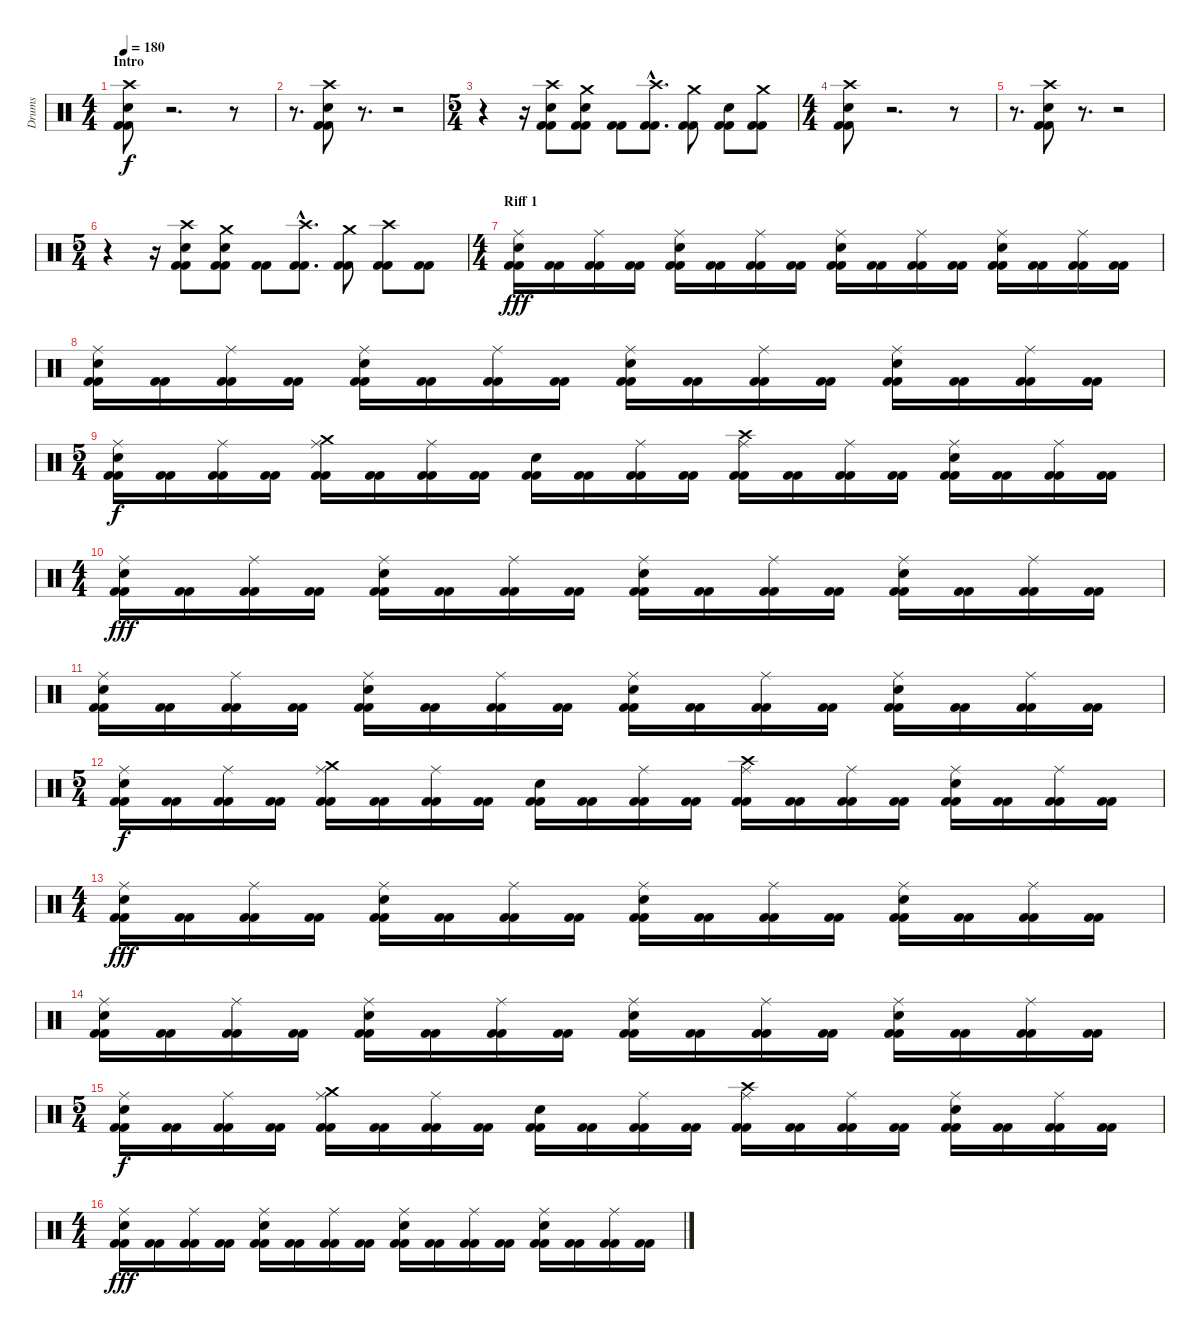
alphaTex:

\track ("Drums" "Drums") {instrument percussion}
\staff {score}
\articulation defaults
\ts (4 4)
\section ("" "Intro")
\tempo 180
\clef neutral
\ks c
("Crash high (hit)" "Snare (hit) 2" "Kick (hit) 2" "Kick (hit) 2").8{dy f} r.2{d} r.8 |
r.8{d} ("Crash high (hit)" "Snare (hit) 2" "Kick (hit) 2" "Kick (hit) 2").8 r.8{d} r.2 |
\ts (5 4)
r.4 r.16 ("Crash high (hit)" "Snare (hit) 2" "Kick (hit) 2" "Kick (hit) 2").8 ("Crash medium (hit)" "Snare (hit) 2" "Kick (hit) 2" "Kick (hit) 2").8 ("Kick (hit) 2" "Kick (hit) 2").8 ("Crash high (hit)"{hac} "Kick (hit) 2"{hac} "Kick (hit) 2"{hac}).8{d} ("Crash medium (hit)" "Kick (hit) 2" "Kick (hit) 2").8 ("Snare (hit) 2" "Kick (hit) 2" "Kick (hit) 2").8 ("Crash medium (hit)" "Kick (hit) 2" "Kick (hit) 2").8 |
\ts (4 4)
("Crash high (hit)" "Snare (hit) 2" "Kick (hit) 2" "Kick (hit) 2").8 r.2{d} r.8 |
r.8{d} ("Crash high (hit)" "Snare (hit) 2" "Kick (hit) 2" "Kick (hit) 2").8 r.8{d} r.2 |
\ts (5 4)
r.4 r.16 ("Crash high (hit)" "Snare (hit) 2" "Kick (hit) 2" "Kick (hit) 2").8 ("Crash medium (hit)" "Snare (hit) 2" "Kick (hit) 2" "Kick (hit) 2").8 ("Kick (hit) 2" "Kick (hit) 2").8 ("Crash high (hit)"{hac} "Kick (hit) 2"{hac} "Kick (hit) 2"{hac}).8{d} ("Crash medium (hit)" "Kick (hit) 2" "Kick (hit) 2").8 ("Crash high (hit)" "Kick (hit) 2" "Kick (hit) 2").8 ("Kick (hit) 2" "Kick (hit) 2").8 |
\ts (4 4)
\section ("" "Riff 1")
("Kick (hit) 2" "Kick (hit) 2" "Electric Snare (hit)" "Ride (middle)").16{dy fff} ("Kick (hit) 2" "Kick (hit) 2").16 ("Kick (hit) 2" "Kick (hit) 2" "Ride (middle)").16 ("Kick (hit) 2" "Kick (hit) 2").16 ("Kick (hit) 2" "Kick (hit) 2" "Electric Snare (hit)" "Ride (middle)").16 ("Kick (hit) 2" "Kick (hit) 2").16 ("Kick (hit) 2" "Kick (hit) 2" "Ride (middle)").16 ("Kick (hit) 2" "Kick (hit) 2").16 ("Kick (hit) 2" "Kick (hit) 2" "Electric Snare (hit)" "Ride (middle)").16 ("Kick (hit) 2" "Kick (hit) 2").16 ("Kick (hit) 2" "Kick (hit) 2" "Ride (middle)").16 ("Kick (hit) 2" "Kick (hit) 2").16 ("Kick (hit) 2" "Kick (hit) 2" "Electric Snare (hit)" "Ride (middle)").16 ("Kick (hit) 2" "Kick (hit) 2").16 ("Kick (hit) 2" "Kick (hit) 2" "Ride (middle)").16 ("Kick (hit) 2" "Kick (hit) 2").16 |
("Kick (hit) 2" "Kick (hit) 2" "Electric Snare (hit)" "Ride (middle)").16 ("Kick (hit) 2" "Kick (hit) 2").16 ("Kick (hit) 2" "Kick (hit) 2" "Ride (middle)").16 ("Kick (hit) 2" "Kick (hit) 2").16 ("Kick (hit) 2" "Kick (hit) 2" "Electric Snare (hit)" "Ride (middle)").16 ("Kick (hit) 2" "Kick (hit) 2").16 ("Kick (hit) 2" "Kick (hit) 2" "Ride (middle)").16 ("Kick (hit) 2" "Kick (hit) 2").16 ("Kick (hit) 2" "Kick (hit) 2" "Electric Snare (hit)" "Ride (middle)").16 ("Kick (hit) 2" "Kick (hit) 2").16 ("Kick (hit) 2" "Kick (hit) 2" "Ride (middle)").16 ("Kick (hit) 2" "Kick (hit) 2").16 ("Kick (hit) 2" "Kick (hit) 2" "Electric Snare (hit)" "Ride (middle)").16 ("Kick (hit) 2" "Kick (hit) 2").16 ("Kick (hit) 2" "Kick (hit) 2" "Ride (middle)").16 ("Kick (hit) 2" "Kick (hit) 2").16 |
\ts (5 4)
("Kick (hit) 2" "Kick (hit) 2" "Electric Snare (hit)" "Ride (middle)").16{dy f} ("Kick (hit) 2" "Kick (hit) 2").16 ("Kick (hit) 2" "Kick (hit) 2" "Ride (middle)").16 ("Kick (hit) 2" "Kick (hit) 2").16 ("Kick (hit) 2" "Kick (hit) 2" "Crash medium (hit)" "Ride (middle)").16 ("Kick (hit) 2" "Kick (hit) 2").16 ("Kick (hit) 2" "Kick (hit) 2" "Ride (middle)").16 ("Kick (hit) 2" "Kick (hit) 2").16 ("Kick (hit) 2" "Kick (hit) 2" "Snare (hit) 2").16 ("Kick (hit) 2" "Kick (hit) 2").16 ("Kick (hit) 2" "Kick (hit) 2" "Ride (middle)").16 ("Kick (hit) 2" "Kick (hit) 2").16 ("Kick (hit) 2" "Kick (hit) 2" "Crash high (hit)" "Ride (middle)").16 ("Kick (hit) 2" "Kick (hit) 2").16 ("Kick (hit) 2" "Kick (hit) 2" "Ride (middle)").16 ("Kick (hit) 2" "Kick (hit) 2").16 ("Kick (hit) 2" "Kick (hit) 2" "Electric Snare (hit)" "Ride (middle)").16 ("Kick (hit) 2" "Kick (hit) 2").16 ("Kick (hit) 2" "Kick (hit) 2" "Ride (middle)").16 ("Kick (hit) 2" "Kick (hit) 2").16 |
\ts (4 4)
("Kick (hit) 2" "Kick (hit) 2" "Electric Snare (hit)" "Ride (middle)").16{dy fff} ("Kick (hit) 2" "Kick (hit) 2").16 ("Kick (hit) 2" "Kick (hit) 2" "Ride (middle)").16 ("Kick (hit) 2" "Kick (hit) 2").16 ("Kick (hit) 2" "Kick (hit) 2" "Electric Snare (hit)" "Ride (middle)").16 ("Kick (hit) 2" "Kick (hit) 2").16 ("Kick (hit) 2" "Kick (hit) 2" "Ride (middle)").16 ("Kick (hit) 2" "Kick (hit) 2").16 ("Kick (hit) 2" "Kick (hit) 2" "Electric Snare (hit)" "Ride (middle)").16 ("Kick (hit) 2" "Kick (hit) 2").16 ("Kick (hit) 2" "Kick (hit) 2" "Ride (middle)").16 ("Kick (hit) 2" "Kick (hit) 2").16 ("Kick (hit) 2" "Kick (hit) 2" "Electric Snare (hit)" "Ride (middle)").16 ("Kick (hit) 2" "Kick (hit) 2").16 ("Kick (hit) 2" "Kick (hit) 2" "Ride (middle)").16 ("Kick (hit) 2" "Kick (hit) 2").16 |
("Kick (hit) 2" "Kick (hit) 2" "Electric Snare (hit)" "Ride (middle)").16 ("Kick (hit) 2" "Kick (hit) 2").16 ("Kick (hit) 2" "Kick (hit) 2" "Ride (middle)").16 ("Kick (hit) 2" "Kick (hit) 2").16 ("Kick (hit) 2" "Kick (hit) 2" "Electric Snare (hit)" "Ride (middle)").16 ("Kick (hit) 2" "Kick (hit) 2").16 ("Kick (hit) 2" "Kick (hit) 2" "Ride (middle)").16 ("Kick (hit) 2" "Kick (hit) 2").16 ("Kick (hit) 2" "Kick (hit) 2" "Electric Snare (hit)" "Ride (middle)").16 ("Kick (hit) 2" "Kick (hit) 2").16 ("Kick (hit) 2" "Kick (hit) 2" "Ride (middle)").16 ("Kick (hit) 2" "Kick (hit) 2").16 ("Kick (hit) 2" "Kick (hit) 2" "Electric Snare (hit)" "Ride (middle)").16 ("Kick (hit) 2" "Kick (hit) 2").16 ("Kick (hit) 2" "Kick (hit) 2" "Ride (middle)").16 ("Kick (hit) 2" "Kick (hit) 2").16 |
\ts (5 4)
("Kick (hit) 2" "Kick (hit) 2" "Electric Snare (hit)" "Ride (middle)").16{dy f} ("Kick (hit) 2" "Kick (hit) 2").16 ("Kick (hit) 2" "Kick (hit) 2" "Ride (middle)").16 ("Kick (hit) 2" "Kick (hit) 2").16 ("Kick (hit) 2" "Kick (hit) 2" "Crash medium (hit)" "Ride (middle)").16 ("Kick (hit) 2" "Kick (hit) 2").16 ("Kick (hit) 2" "Kick (hit) 2" "Ride (middle)").16 ("Kick (hit) 2" "Kick (hit) 2").16 ("Kick (hit) 2" "Kick (hit) 2" "Snare (hit) 2").16 ("Kick (hit) 2" "Kick (hit) 2").16 ("Kick (hit) 2" "Kick (hit) 2" "Ride (middle)").16 ("Kick (hit) 2" "Kick (hit) 2").16 ("Kick (hit) 2" "Kick (hit) 2" "Crash high (hit)" "Ride (middle)").16 ("Kick (hit) 2" "Kick (hit) 2").16 ("Kick (hit) 2" "Kick (hit) 2" "Ride (middle)").16 ("Kick (hit) 2" "Kick (hit) 2").16 ("Kick (hit) 2" "Kick (hit) 2" "Snare (hit) 2" "Ride (middle)").16 ("Kick (hit) 2" "Kick (hit) 2").16 ("Kick (hit) 2" "Kick (hit) 2" "Ride (middle)").16 ("Kick (hit) 2" "Kick (hit) 2").16 |
\ts (4 4)
("Kick (hit) 2" "Kick (hit) 2" "Electric Snare (hit)" "Ride (middle)").16{dy fff} ("Kick (hit) 2" "Kick (hit) 2").16 ("Kick (hit) 2" "Kick (hit) 2" "Ride (middle)").16 ("Kick (hit) 2" "Kick (hit) 2").16 ("Kick (hit) 2" "Kick (hit) 2" "Electric Snare (hit)" "Ride (middle)").16 ("Kick (hit) 2" "Kick (hit) 2").16 ("Kick (hit) 2" "Kick (hit) 2" "Ride (middle)").16 ("Kick (hit) 2" "Kick (hit) 2").16 ("Kick (hit) 2" "Kick (hit) 2" "Electric Snare (hit)" "Ride (middle)").16 ("Kick (hit) 2" "Kick (hit) 2").16 ("Kick (hit) 2" "Kick (hit) 2" "Ride (middle)").16 ("Kick (hit) 2" "Kick (hit) 2").16 ("Kick (hit) 2" "Kick (hit) 2" "Electric Snare (hit)" "Ride (middle)").16 ("Kick (hit) 2" "Kick (hit) 2").16 ("Kick (hit) 2" "Kick (hit) 2" "Ride (middle)").16 ("Kick (hit) 2" "Kick (hit) 2").16 |
("Kick (hit) 2" "Kick (hit) 2" "Electric Snare (hit)" "Ride (middle)").16 ("Kick (hit) 2" "Kick (hit) 2").16 ("Kick (hit) 2" "Kick (hit) 2" "Ride (middle)").16 ("Kick (hit) 2" "Kick (hit) 2").16 ("Kick (hit) 2" "Kick (hit) 2" "Electric Snare (hit)" "Ride (middle)").16 ("Kick (hit) 2" "Kick (hit) 2").16 ("Kick (hit) 2" "Kick (hit) 2" "Ride (middle)").16 ("Kick (hit) 2" "Kick (hit) 2").16 ("Kick (hit) 2" "Kick (hit) 2" "Electric Snare (hit)" "Ride (middle)").16 ("Kick (hit) 2" "Kick (hit) 2").16 ("Kick (hit) 2" "Kick (hit) 2" "Ride (middle)").16 ("Kick (hit) 2" "Kick (hit) 2").16 ("Kick (hit) 2" "Kick (hit) 2" "Electric Snare (hit)" "Ride (middle)").16 ("Kick (hit) 2" "Kick (hit) 2").16 ("Kick (hit) 2" "Kick (hit) 2" "Ride (middle)").16 ("Kick (hit) 2" "Kick (hit) 2").16 |
\ts (5 4)
("Kick (hit) 2" "Kick (hit) 2" "Electric Snare (hit)" "Ride (middle)").16{dy f} ("Kick (hit) 2" "Kick (hit) 2").16 ("Kick (hit) 2" "Kick (hit) 2" "Ride (middle)").16 ("Kick (hit) 2" "Kick (hit) 2").16 ("Kick (hit) 2" "Kick (hit) 2" "Crash medium (hit)" "Ride (middle)").16 ("Kick (hit) 2" "Kick (hit) 2").16 ("Kick (hit) 2" "Kick (hit) 2" "Ride (middle)").16 ("Kick (hit) 2" "Kick (hit) 2").16 ("Kick (hit) 2" "Kick (hit) 2" "Snare (hit) 2").16 ("Kick (hit) 2" "Kick (hit) 2").16 ("Kick (hit) 2" "Kick (hit) 2" "Ride (middle)").16 ("Kick (hit) 2" "Kick (hit) 2").16 ("Kick (hit) 2" "Kick (hit) 2" "Crash high (hit)" "Ride (middle)").16 ("Kick (hit) 2" "Kick (hit) 2").16 ("Kick (hit) 2" "Kick (hit) 2" "Ride (middle)").16 ("Kick (hit) 2" "Kick (hit) 2").16 ("Kick (hit) 2" "Kick (hit) 2" "Electric Snare (hit)" "Ride (middle)").16 ("Kick (hit) 2" "Kick (hit) 2").16 ("Kick (hit) 2" "Kick (hit) 2" "Ride (middle)").16 ("Kick (hit) 2" "Kick (hit) 2").16 |
\ts (4 4)
("Kick (hit) 2" "Kick (hit) 2" "Electric Snare (hit)" "Ride (middle)").16{dy fff} ("Kick (hit) 2" "Kick (hit) 2").16 ("Kick (hit) 2" "Kick (hit) 2" "Ride (middle)").16 ("Kick (hit) 2" "Kick (hit) 2").16 ("Kick (hit) 2" "Kick (hit) 2" "Electric Snare (hit)" "Ride (middle)").16 ("Kick (hit) 2" "Kick (hit) 2").16 ("Kick (hit) 2" "Kick (hit) 2" "Ride (middle)").16 ("Kick (hit) 2" "Kick (hit) 2").16 ("Kick (hit) 2" "Kick (hit) 2" "Electric Snare (hit)" "Ride (middle)").16 ("Kick (hit) 2" "Kick (hit) 2").16 ("Kick (hit) 2" "Kick (hit) 2" "Ride (middle)").16 ("Kick (hit) 2" "Kick (hit) 2").16 ("Kick (hit) 2" "Kick (hit) 2" "Electric Snare (hit)" "Ride (middle)").16 ("Kick (hit) 2" "Kick (hit) 2").16 ("Kick (hit) 2" "Kick (hit) 2" "Ride (middle)").16 ("Kick (hit) 2" "Kick (hit) 2").16
